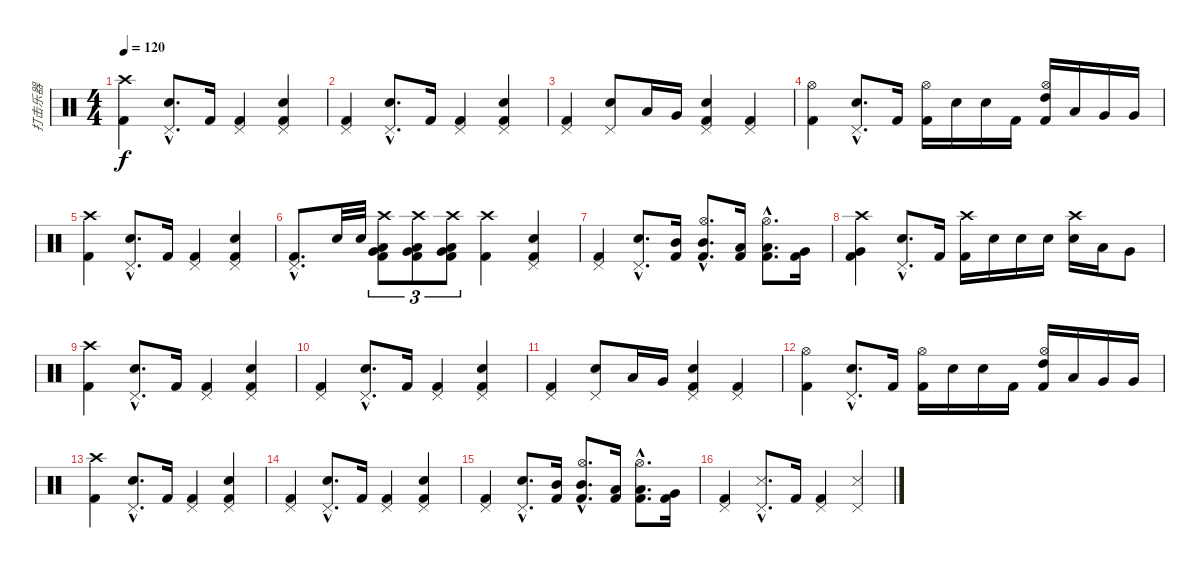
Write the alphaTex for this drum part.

\track ("打击乐器" "打击乐器") {instrument percussion}
\staff {score}
\articulation defaults
\ts (4 4)
\tempo 120
\clef neutral
\ks c
("Crash high (hit)" "Kick (hit) 2").4{dy f} ("Pedal Hi-Hat (hit)"{hac} "Snare (hit) 2"{hac}).8{d} "Kick (hit) 2".16 ("Pedal Hi-Hat (hit)" "Kick (hit) 2").4 ("Pedal Hi-Hat (hit)" "Snare (hit) 2" "Kick (hit) 2").4 |
("Pedal Hi-Hat (hit)" "Kick (hit) 2").4 ("Pedal Hi-Hat (hit)"{hac} "Snare (hit) 2"{hac}).8{d} "Kick (hit) 2".16 ("Pedal Hi-Hat (hit)" "Kick (hit) 2").4 ("Pedal Hi-Hat (hit)" "Snare (hit) 2" "Kick (hit) 2").4 |
("Pedal Hi-Hat (hit)" "Kick (hit) 2").4 ("Pedal Hi-Hat (hit)" "Snare (hit) 2").8 "Low Tom (hit)".16 "Very Low Tom (hit)".16 ("Pedal Hi-Hat (hit)" "Snare (hit) 2" "Kick (hit) 2").4 ("Pedal Hi-Hat (hit)" "Kick (hit) 2").4 |
("Hi-Hat (open)" "Kick (hit) 2").4 ("Pedal Hi-Hat (hit)"{hac} "Snare (hit) 2"{hac}).8{d} "Kick (hit) 2".16 ("Hi-Hat (open)" "Kick (hit) 2").16 "Snare (hit) 2".16 "Snare (hit) 2".16 "Kick (hit) 2".16 ("Hi-Hat (open)" "High Tom (hit)" "Kick (hit) 2").16 "Low Tom (hit)".16 "Very Low Tom (hit)".16 "Very Low Tom (hit)".16 |
("Crash high (hit)" "Kick (hit) 2").4 ("Pedal Hi-Hat (hit)"{hac} "Snare (hit) 2"{hac}).8{d} "Kick (hit) 2".16 ("Pedal Hi-Hat (hit)" "Kick (hit) 2").4 ("Pedal Hi-Hat (hit)" "Snare (hit) 2" "Kick (hit) 2").4 |
("Pedal Hi-Hat (hit)"{hac} "Kick (hit) 2"{hac}).8{d} "Snare (hit) 2".32 "Snare (hit) 2".32 ("Crash high (hit)" "Very Low Tom (hit)" "Low Tom (hit)" "Kick (hit) 2").8{tu (3 2)} ("Crash high (hit)" "Very Low Tom (hit)" "Low Tom (hit)" "Kick (hit) 2").8{tu (3 2)} ("Crash high (hit)" "Very Low Tom (hit)" "Low Tom (hit)" "Kick (hit) 2").8{tu (3 2)} ("Crash high (hit)" "Kick (hit) 2").4 ("Pedal Hi-Hat (hit)" "Snare (hit) 2" "Kick (hit) 2").4 |
("Pedal Hi-Hat (hit)" "Kick (hit) 2").4 ("Pedal Hi-Hat (hit)"{hac} "Snare (hit) 2"{hac}).8{d} ("Mid Tom (hit)" "Kick (hit) 2").16 ("Hi-Hat (open)"{hac} "Mid Tom (hit)"{hac} "Kick (hit) 2"{hac}).8{d} ("Low Tom (hit)" "Kick (hit) 2").16 ("Hi-Hat (open)"{hac} "Low Tom (hit)"{hac} "Kick (hit) 2"{hac}).8{d} ("Very Low Tom (hit)" "Kick (hit) 2").16 |
("Crash high (hit)" "Very Low Tom (hit)" "Kick (hit) 2").4 ("Pedal Hi-Hat (hit)"{hac} "Snare (hit) 2"{hac}).8{d} "Kick (hit) 2".16 ("Crash high (hit)" "Kick (hit) 2").16 "Snare (hit) 2".16 "Snare (hit) 2".16 "Snare (hit) 2".16 ("Crash high (hit)" "Snare (hit) 2").16 "Low Tom (hit)".16 "Very Low Tom (hit)".8 |
("Crash high (hit)" "Kick (hit) 2").4 ("Pedal Hi-Hat (hit)"{hac} "Snare (hit) 2"{hac}).8{d} "Kick (hit) 2".16 ("Pedal Hi-Hat (hit)" "Kick (hit) 2").4 ("Pedal Hi-Hat (hit)" "Snare (hit) 2" "Kick (hit) 2").4 |
("Pedal Hi-Hat (hit)" "Kick (hit) 2").4 ("Pedal Hi-Hat (hit)"{hac} "Snare (hit) 2"{hac}).8{d} "Kick (hit) 2".16 ("Pedal Hi-Hat (hit)" "Kick (hit) 2").4 ("Pedal Hi-Hat (hit)" "Snare (hit) 2" "Kick (hit) 2").4 |
("Pedal Hi-Hat (hit)" "Kick (hit) 2").4 ("Pedal Hi-Hat (hit)" "Snare (hit) 2").8 "Low Tom (hit)".16 "Very Low Tom (hit)".16 ("Pedal Hi-Hat (hit)" "Snare (hit) 2" "Kick (hit) 2").4 ("Pedal Hi-Hat (hit)" "Kick (hit) 2").4 |
("Hi-Hat (open)" "Kick (hit) 2").4 ("Pedal Hi-Hat (hit)"{hac} "Snare (hit) 2"{hac}).8{d} "Kick (hit) 2".16 ("Hi-Hat (open)" "Kick (hit) 2").16 "Snare (hit) 2".16 "Snare (hit) 2".16 "Kick (hit) 2".16 ("Hi-Hat (open)" "High Tom (hit)" "Kick (hit) 2").16 "Low Tom (hit)".16 "Very Low Tom (hit)".16 "Very Low Tom (hit)".16 |
("Crash high (hit)" "Kick (hit) 2").4 ("Pedal Hi-Hat (hit)"{hac} "Snare (hit) 2"{hac}).8{d} "Kick (hit) 2".16 ("Pedal Hi-Hat (hit)" "Kick (hit) 2").4 ("Pedal Hi-Hat (hit)" "Snare (hit) 2" "Kick (hit) 2").4 |
("Pedal Hi-Hat (hit)" "Kick (hit) 2").4 ("Pedal Hi-Hat (hit)"{hac} "Snare (hit) 2"{hac}).8{d} "Kick (hit) 2".16 ("Pedal Hi-Hat (hit)" "Kick (hit) 2").4 ("Pedal Hi-Hat (hit)" "Snare (hit) 2" "Kick (hit) 2").4 |
("Pedal Hi-Hat (hit)" "Kick (hit) 2").4 ("Pedal Hi-Hat (hit)"{hac} "Snare (hit) 2"{hac}).8{d} ("Mid Tom (hit)" "Kick (hit) 2").16 ("Hi-Hat (open)"{hac} "Mid Tom (hit)"{hac} "Kick (hit) 2"{hac}).8{d} ("Low Tom (hit)" "Kick (hit) 2").16 ("Hi-Hat (open)"{hac} "Low Tom (hit)"{hac} "Kick (hit) 2"{hac}).8{d} ("Very Low Tom (hit)" "Kick (hit) 2").16 |
("Pedal Hi-Hat (hit)" "Kick (hit) 2").4 ("Pedal Hi-Hat (hit)"{hac} "Snare (side stick) 3"{hac}).8{d} "Kick (hit) 2".16 ("Pedal Hi-Hat (hit)" "Kick (hit) 2").4 ("Pedal Hi-Hat (hit)" "Snare (side stick) 3").4
